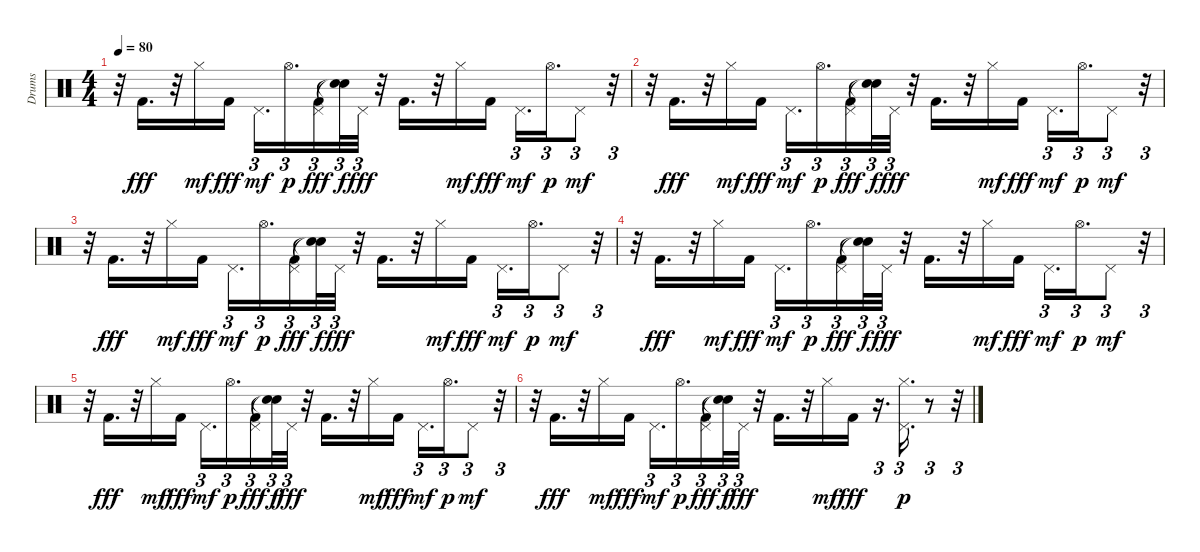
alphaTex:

\track ("Drums" "Drums") {instrument percussion}
\staff {score}
\articulation defaults
\ts (4 4)
\tempo 80
\clef neutral
\ks c
r.32{dy mf} "Kick (hit) 2".16{d dy fff} r.32 "Hi-Hat (closed)".16{dy mf} "Kick (hit) 2".16{dy fff} "Pedal Hi-Hat (hit)".16{d tu (3 2) dy mf} "Hi-Hat (open)".16{d tu (3 2) dy p} ("Pedal Hi-Hat (hit)" "Kick (hit) 2").16{tu (3 2) dy fff} ("Snare (hit)"{t} "Snare (hit)"{t}).32{tu (3 2) dy f} "Pedal Hi-Hat (hit)".32{tu (3 2) dy fff} r.32 "Kick (hit) 2".16{d} r.32 "Hi-Hat (closed)".16{dy mf} "Kick (hit) 2".16{dy fff} "Pedal Hi-Hat (hit)".16{d tu (3 2) dy mf} "Hi-Hat (open)".16{d tu (3 2) dy p} "Pedal Hi-Hat (hit)".8{tu (3 2) dy mf} r.32{tu (3 2)} |
r.32 "Kick (hit) 2".16{d dy fff} r.32 "Hi-Hat (closed)".16{dy mf} "Kick (hit) 2".16{dy fff} "Pedal Hi-Hat (hit)".16{d tu (3 2) dy mf} "Hi-Hat (open)".16{d tu (3 2) dy p} ("Pedal Hi-Hat (hit)" "Kick (hit) 2").16{tu (3 2) dy fff} ("Snare (hit)"{t} "Snare (hit)"{t}).32{tu (3 2) dy f} "Pedal Hi-Hat (hit)".32{tu (3 2) dy fff} r.32 "Kick (hit) 2".16{d} r.32 "Hi-Hat (closed)".16{dy mf} "Kick (hit) 2".16{dy fff} "Pedal Hi-Hat (hit)".16{d tu (3 2) dy mf} "Hi-Hat (open)".16{d tu (3 2) dy p} "Pedal Hi-Hat (hit)".8{tu (3 2) dy mf} r.32{tu (3 2)} |
r.32 "Kick (hit) 2".16{d dy fff} r.32 "Hi-Hat (closed)".16{dy mf} "Kick (hit) 2".16{dy fff} "Pedal Hi-Hat (hit)".16{d tu (3 2) dy mf} "Hi-Hat (open)".16{d tu (3 2) dy p} ("Pedal Hi-Hat (hit)" "Kick (hit) 2").16{tu (3 2) dy fff} ("Snare (hit)"{t} "Snare (hit)"{t}).32{tu (3 2) dy f} "Pedal Hi-Hat (hit)".32{tu (3 2) dy fff} r.32 "Kick (hit) 2".16{d} r.32 "Hi-Hat (closed)".16{dy mf} "Kick (hit) 2".16{dy fff} "Pedal Hi-Hat (hit)".16{d tu (3 2) dy mf} "Hi-Hat (open)".16{d tu (3 2) dy p} "Pedal Hi-Hat (hit)".8{tu (3 2) dy mf} r.32{tu (3 2)} |
r.32 "Kick (hit) 2".16{d dy fff} r.32 "Hi-Hat (closed)".16{dy mf} "Kick (hit) 2".16{dy fff} "Pedal Hi-Hat (hit)".16{d tu (3 2) dy mf} "Hi-Hat (open)".16{d tu (3 2) dy p} ("Pedal Hi-Hat (hit)" "Kick (hit) 2").16{tu (3 2) dy fff} ("Snare (hit)"{t} "Snare (hit)"{t}).32{tu (3 2) dy f} "Pedal Hi-Hat (hit)".32{tu (3 2) dy fff} r.32 "Kick (hit) 2".16{d} r.32 "Hi-Hat (closed)".16{dy mf} "Kick (hit) 2".16{dy fff} "Pedal Hi-Hat (hit)".16{d tu (3 2) dy mf} "Hi-Hat (open)".16{d tu (3 2) dy p} "Pedal Hi-Hat (hit)".8{tu (3 2) dy mf} r.32{tu (3 2)} |
r.32 "Kick (hit) 2".16{d dy fff} r.32 "Hi-Hat (closed)".16{dy mf} "Kick (hit) 2".16{dy fff} "Pedal Hi-Hat (hit)".16{d tu (3 2) dy mf} "Hi-Hat (open)".16{d tu (3 2) dy p} ("Pedal Hi-Hat (hit)" "Kick (hit) 2").16{tu (3 2) dy fff} ("Snare (hit)"{t} "Snare (hit)"{t}).32{tu (3 2) dy f} "Pedal Hi-Hat (hit)".32{tu (3 2) dy fff} r.32 "Kick (hit) 2".16{d} r.32 "Hi-Hat (closed)".16{dy mf} "Kick (hit) 2".16{dy fff} "Pedal Hi-Hat (hit)".16{d tu (3 2) dy mf} "Hi-Hat (open)".16{d tu (3 2) dy p} "Pedal Hi-Hat (hit)".8{tu (3 2) dy mf} r.32{tu (3 2)} |
r.32 "Kick (hit) 2".16{d dy fff} r.32 "Hi-Hat (closed)".16{dy mf} "Kick (hit) 2".16{dy fff} "Pedal Hi-Hat (hit)".16{d tu (3 2) dy mf} "Hi-Hat (open)".16{d tu (3 2) dy p} ("Pedal Hi-Hat (hit)" "Kick (hit) 2").16{tu (3 2) dy fff} ("Snare (hit)"{t} "Snare (hit)"{t}).32{tu (3 2) dy f} "Pedal Hi-Hat (hit)".32{tu (3 2) dy fff} r.32 "Kick (hit) 2".16{d} r.32 "Hi-Hat (closed)".16{dy mf} "Kick (hit) 2".16{dy fff} r.16{d tu (3 2)} ("Pedal Hi-Hat (hit)" "Hi-Hat (closed)").16{d tu (3 2) dy p} r.8{tu (3 2)} r.32{tu (3 2)}
